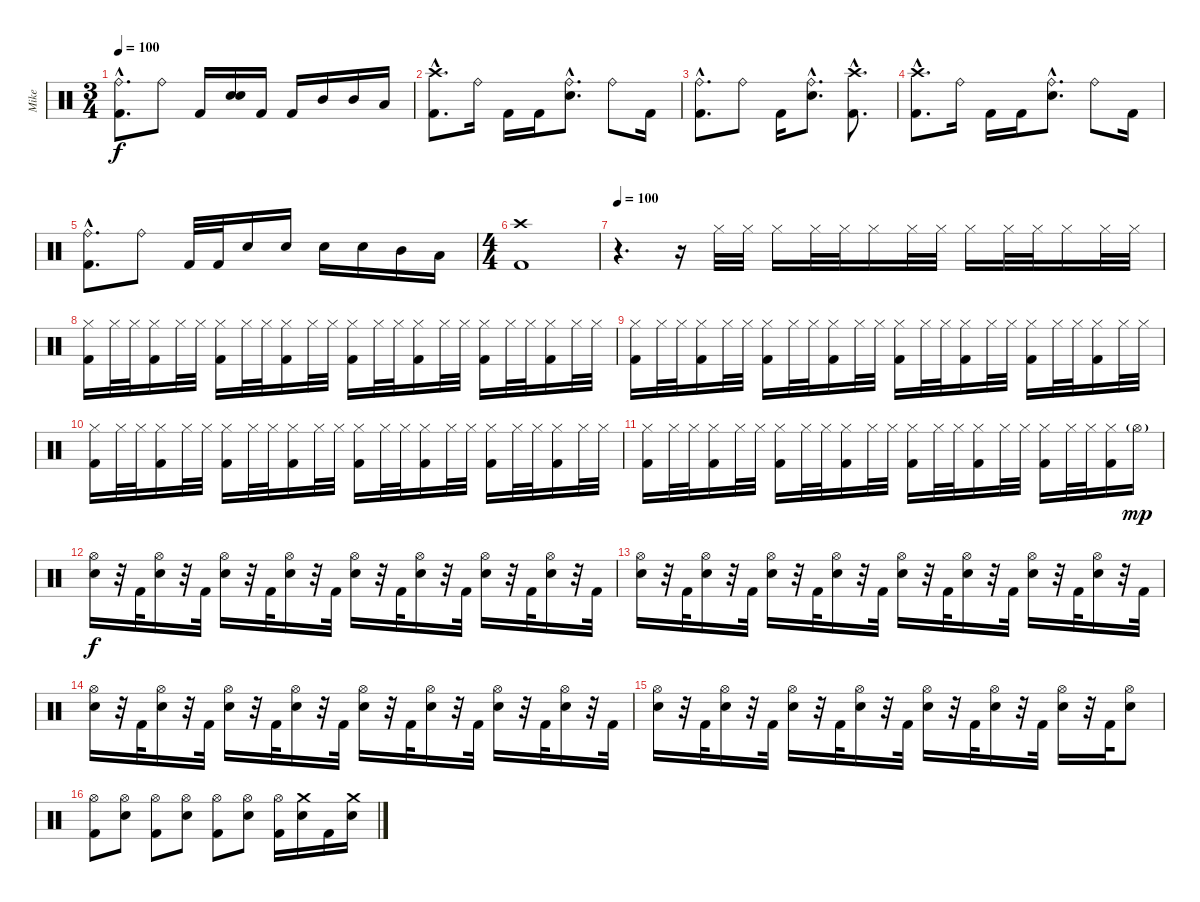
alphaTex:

\track ("Mike" "Mike") {instrument percussion}
\staff {score}
\articulation defaults
\ts (3 4)
\tempo 100
\clef neutral
\ks c
("Ride (bell)"{hac} "Kick (hit) 2"{hac}).8{d dy f} "Ride (bell)".8 "Kick (hit) 2".16 ("Snare (hit) 2" "Snare (hit) 2").16 "Kick (hit) 2".16 "Kick (hit) 2".16 "Mid Tom (hit)".16 "Mid Tom (hit)".16 "Low Tom (hit)".16 |
("Crash high (hit)"{hac} "Kick (hit) 2"{hac}).8{d} "Ride (bell)".16 "Kick (hit) 2".16 "Kick (hit) 2".16 ("Ride (bell)"{hac} "Snare (hit) 2"{hac}).8{d} "Ride (bell)".8 "Kick (hit) 2".16 |
("Ride (bell)"{hac} "Kick (hit) 2"{hac}).8{d} "Ride (bell)".8 "Kick (hit) 2".16 ("Ride (bell)"{hac} "Snare (hit) 2"{hac}).8{d} ("Crash high (hit)"{hac} "Kick (hit) 2"{hac}).8{d} |
("Crash high (hit)"{hac} "Kick (hit) 2"{hac}).8{d} "Ride (bell)".16 "Kick (hit) 2".16 "Kick (hit) 2".16 ("Ride (bell)"{hac} "Snare (hit) 2"{hac}).8{d} "Ride (bell)".8 "Kick (hit) 2".16 |
("Ride (bell)"{hac} "Kick (hit) 2"{hac}).8{d} "Ride (bell)".8 "Kick (hit) 2".32 "Kick (hit) 2".32 "Snare (hit) 2".16 "Snare (hit) 2".16 "Snare (hit) 2".16 "Snare (hit) 2".16 "Mid Tom (hit)".16 "Low Tom (hit)".16 |
\ts (4 4)
("Crash high (hit)" "Kick (hit) 2").1 |
\tempo 100
r.4{d} r.16 "Hi-Hat (closed)".32 "Hi-Hat (closed)".32 "Hi-Hat (closed)".16 "Hi-Hat (closed)".32 "Hi-Hat (closed)".32 "Hi-Hat (closed)".16 "Hi-Hat (closed)".32 "Hi-Hat (closed)".32 "Hi-Hat (closed)".16 "Hi-Hat (closed)".32 "Hi-Hat (closed)".32 "Hi-Hat (closed)".16 "Hi-Hat (closed)".32 "Hi-Hat (closed)".32 |
("Hi-Hat (closed)" "Kick (hit) 2").16 "Hi-Hat (closed)".32 "Hi-Hat (closed)".32 ("Hi-Hat (closed)" "Kick (hit) 2").16 "Hi-Hat (closed)".32 "Hi-Hat (closed)".32 ("Hi-Hat (closed)" "Kick (hit) 2").16 "Hi-Hat (closed)".32 "Hi-Hat (closed)".32 ("Hi-Hat (closed)" "Kick (hit) 2").16 "Hi-Hat (closed)".32 "Hi-Hat (closed)".32 ("Hi-Hat (closed)" "Kick (hit) 2").16 "Hi-Hat (closed)".32 "Hi-Hat (closed)".32 ("Hi-Hat (closed)" "Kick (hit) 2").16 "Hi-Hat (closed)".32 "Hi-Hat (closed)".32 ("Hi-Hat (closed)" "Kick (hit) 2").16 "Hi-Hat (closed)".32 "Hi-Hat (closed)".32 ("Hi-Hat (closed)" "Kick (hit) 2").16 "Hi-Hat (closed)".32 "Hi-Hat (closed)".32 |
("Hi-Hat (closed)" "Kick (hit) 2").16 "Hi-Hat (closed)".32 "Hi-Hat (closed)".32 ("Hi-Hat (closed)" "Kick (hit) 2").16 "Hi-Hat (closed)".32 "Hi-Hat (closed)".32 ("Hi-Hat (closed)" "Kick (hit) 2").16 "Hi-Hat (closed)".32 "Hi-Hat (closed)".32 ("Hi-Hat (closed)" "Kick (hit) 2").16 "Hi-Hat (closed)".32 "Hi-Hat (closed)".32 ("Hi-Hat (closed)" "Kick (hit) 2").16 "Hi-Hat (closed)".32 "Hi-Hat (closed)".32 ("Hi-Hat (closed)" "Kick (hit) 2").16 "Hi-Hat (closed)".32 "Hi-Hat (closed)".32 ("Hi-Hat (closed)" "Kick (hit) 2").16 "Hi-Hat (closed)".32 "Hi-Hat (closed)".32 ("Hi-Hat (closed)" "Kick (hit) 2").16 "Hi-Hat (closed)".32 "Hi-Hat (closed)".32 |
("Hi-Hat (closed)" "Kick (hit) 2").16 "Hi-Hat (closed)".32 "Hi-Hat (closed)".32 ("Hi-Hat (closed)" "Kick (hit) 2").16 "Hi-Hat (closed)".32 "Hi-Hat (closed)".32 ("Hi-Hat (closed)" "Kick (hit) 2").16 "Hi-Hat (closed)".32 "Hi-Hat (closed)".32 ("Hi-Hat (closed)" "Kick (hit) 2").16 "Hi-Hat (closed)".32 "Hi-Hat (closed)".32 ("Hi-Hat (closed)" "Kick (hit) 2").16 "Hi-Hat (closed)".32 "Hi-Hat (closed)".32 ("Hi-Hat (closed)" "Kick (hit) 2").16 "Hi-Hat (closed)".32 "Hi-Hat (closed)".32 ("Hi-Hat (closed)" "Kick (hit) 2").16 "Hi-Hat (closed)".32 "Hi-Hat (closed)".32 ("Hi-Hat (closed)" "Kick (hit) 2").16 "Hi-Hat (closed)".32 "Hi-Hat (closed)".32 |
("Hi-Hat (closed)" "Kick (hit) 2").16 "Hi-Hat (closed)".32 "Hi-Hat (closed)".32 ("Hi-Hat (closed)" "Kick (hit) 2").16 "Hi-Hat (closed)".32 "Hi-Hat (closed)".32 ("Hi-Hat (closed)" "Kick (hit) 2").16 "Hi-Hat (closed)".32 "Hi-Hat (closed)".32 ("Hi-Hat (closed)" "Kick (hit) 2").16 "Hi-Hat (closed)".32 "Hi-Hat (closed)".32 ("Hi-Hat (closed)" "Kick (hit) 2").16 "Hi-Hat (closed)".32 "Hi-Hat (closed)".32 ("Hi-Hat (closed)" "Kick (hit) 2").16 "Hi-Hat (closed)".32 "Hi-Hat (closed)".32 ("Hi-Hat (closed)" "Kick (hit) 2").16 "Hi-Hat (closed)".32 "Hi-Hat (closed)".32 ("Hi-Hat (closed)" "Kick (hit) 2").16 "Hi-Hat (open)"{g}.16{dy mp} |
("Hi-Hat (open)" "Snare (hit) 2").16{dy f} r.32 "Kick (hit) 2".32 ("Hi-Hat (open)" "Snare (hit) 2").16 r.32 "Kick (hit) 2".32 ("Hi-Hat (open)" "Snare (hit) 2").16 r.32 "Kick (hit) 2".32 ("Hi-Hat (open)" "Snare (hit) 2").16 r.32 "Kick (hit) 2".32 ("Hi-Hat (open)" "Snare (hit) 2").16 r.32 "Kick (hit) 2".32 ("Hi-Hat (open)" "Snare (hit) 2").16 r.32 "Kick (hit) 2".32 ("Hi-Hat (open)" "Snare (hit) 2").16 r.32 "Kick (hit) 2".32 ("Hi-Hat (open)" "Snare (hit) 2").16 r.32 "Kick (hit) 2".32 |
("Hi-Hat (open)" "Snare (hit) 2").16 r.32 "Kick (hit) 2".32 ("Hi-Hat (open)" "Snare (hit) 2").16 r.32 "Kick (hit) 2".32 ("Hi-Hat (open)" "Snare (hit) 2").16 r.32 "Kick (hit) 2".32 ("Hi-Hat (open)" "Snare (hit) 2").16 r.32 "Kick (hit) 2".32 ("Hi-Hat (open)" "Snare (hit) 2").16 r.32 "Kick (hit) 2".32 ("Hi-Hat (open)" "Snare (hit) 2").16 r.32 "Kick (hit) 2".32 ("Hi-Hat (open)" "Snare (hit) 2").16 r.32 "Kick (hit) 2".32 ("Hi-Hat (open)" "Snare (hit) 2").16 r.32 "Kick (hit) 2".32 |
("Hi-Hat (open)" "Snare (hit) 2").16 r.32 "Kick (hit) 2".32 ("Hi-Hat (open)" "Snare (hit) 2").16 r.32 "Kick (hit) 2".32 ("Hi-Hat (open)" "Snare (hit) 2").16 r.32 "Kick (hit) 2".32 ("Hi-Hat (open)" "Snare (hit) 2").16 r.32 "Kick (hit) 2".32 ("Hi-Hat (open)" "Snare (hit) 2").16 r.32 "Kick (hit) 2".32 ("Hi-Hat (open)" "Snare (hit) 2").16 r.32 "Kick (hit) 2".32 ("Hi-Hat (open)" "Snare (hit) 2").16 r.32 "Kick (hit) 2".32 ("Hi-Hat (open)" "Snare (hit) 2").16 r.32 "Kick (hit) 2".32 |
("Hi-Hat (open)" "Snare (hit) 2").16 r.32 "Kick (hit) 2".32 ("Hi-Hat (open)" "Snare (hit) 2").16 r.32 "Kick (hit) 2".32 ("Hi-Hat (open)" "Snare (hit) 2").16 r.32 "Kick (hit) 2".32 ("Hi-Hat (open)" "Snare (hit) 2").16 r.32 "Kick (hit) 2".32 ("Hi-Hat (open)" "Snare (hit) 2").16 r.32 "Kick (hit) 2".32 ("Hi-Hat (open)" "Snare (hit) 2").16 r.32 "Kick (hit) 2".32 ("Hi-Hat (open)" "Snare (hit) 2").16 r.32 "Kick (hit) 2".32 ("Hi-Hat (open)" "Snare (hit) 2").8 |
("Hi-Hat (open)" "Kick (hit) 2").8 ("Hi-Hat (open)" "Snare (hit) 2").8 ("Hi-Hat (open)" "Kick (hit) 2").8 ("Hi-Hat (open)" "Snare (hit) 2").8 ("Hi-Hat (open)" "Kick (hit) 2").8 ("Hi-Hat (open)" "Snare (hit) 2").8 ("Hi-Hat (open)" "Kick (hit) 2").16 ("Crash medium (hit)" "Snare (hit) 2").16 "Kick (hit) 2".16 ("Crash medium (hit)" "Snare (hit) 2").16
